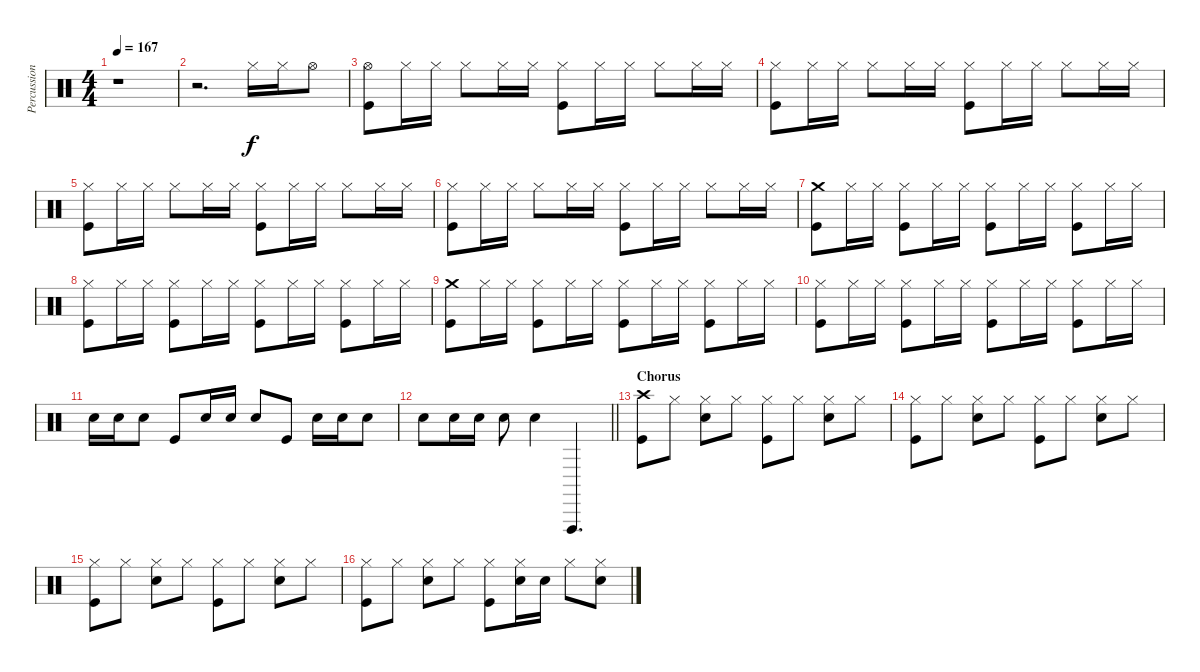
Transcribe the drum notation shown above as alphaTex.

\track ("Percussion" "Percussion") {instrument percussion}
\staff {score}
\articulation defaults
\ts (4 4)
\tempo 167
\clef neutral
\ks c
r.1{dy f} |
r.2{d} "Hi-Hat (closed)".16 "Hi-Hat (closed)".16 "Hi-Hat (open)".8 |
("Hi-Hat (open)" "Kick (hit)").8 "Hi-Hat (closed)".16 "Hi-Hat (closed)".16 "Hi-Hat (closed)".8 "Hi-Hat (closed)".16 "Hi-Hat (closed)".16 ("Hi-Hat (closed)" "Kick (hit)").8 "Hi-Hat (closed)".16 "Hi-Hat (closed)".16 "Hi-Hat (closed)".8 "Hi-Hat (closed)".16 "Hi-Hat (closed)".16 |
("Hi-Hat (closed)" "Kick (hit)").8 "Hi-Hat (closed)".16 "Hi-Hat (closed)".16 "Hi-Hat (closed)".8 "Hi-Hat (closed)".16 "Hi-Hat (closed)".16 ("Hi-Hat (closed)" "Kick (hit)").8 "Hi-Hat (closed)".16 "Hi-Hat (closed)".16 "Hi-Hat (closed)".8 "Hi-Hat (closed)".16 "Hi-Hat (closed)".16 |
("Hi-Hat (closed)" "Kick (hit)").8 "Hi-Hat (closed)".16 "Hi-Hat (closed)".16 "Hi-Hat (closed)".8 "Hi-Hat (closed)".16 "Hi-Hat (closed)".16 ("Hi-Hat (closed)" "Kick (hit)").8 "Hi-Hat (closed)".16 "Hi-Hat (closed)".16 "Hi-Hat (closed)".8 "Hi-Hat (closed)".16 "Hi-Hat (closed)".16 |
("Hi-Hat (closed)" "Kick (hit)").8 "Hi-Hat (closed)".16 "Hi-Hat (closed)".16 "Hi-Hat (closed)".8 "Hi-Hat (closed)".16 "Hi-Hat (closed)".16 ("Hi-Hat (closed)" "Kick (hit)").8 "Hi-Hat (closed)".16 "Hi-Hat (closed)".16 "Hi-Hat (closed)".8 "Hi-Hat (closed)".16 "Hi-Hat (closed)".16 |
("Crash medium (hit)" "Kick (hit)").8 "Hi-Hat (closed)".16 "Hi-Hat (closed)".16 ("Hi-Hat (closed)" "Kick (hit)").8 "Hi-Hat (closed)".16 "Hi-Hat (closed)".16 ("Hi-Hat (closed)" "Kick (hit)").8 "Hi-Hat (closed)".16 "Hi-Hat (closed)".16 ("Hi-Hat (closed)" "Kick (hit)").8 "Hi-Hat (closed)".16 "Hi-Hat (closed)".16 |
("Hi-Hat (closed)" "Kick (hit)").8 "Hi-Hat (closed)".16 "Hi-Hat (closed)".16 ("Hi-Hat (closed)" "Kick (hit)").8 "Hi-Hat (closed)".16 "Hi-Hat (closed)".16 ("Hi-Hat (closed)" "Kick (hit)").8 "Hi-Hat (closed)".16 "Hi-Hat (closed)".16 ("Hi-Hat (closed)" "Kick (hit)").8 "Hi-Hat (closed)".16 "Hi-Hat (closed)".16 |
("Crash medium (hit)" "Kick (hit)").8 "Hi-Hat (closed)".16 "Hi-Hat (closed)".16 ("Hi-Hat (closed)" "Kick (hit)").8 "Hi-Hat (closed)".16 "Hi-Hat (closed)".16 ("Hi-Hat (closed)" "Kick (hit)").8 "Hi-Hat (closed)".16 "Hi-Hat (closed)".16 ("Hi-Hat (closed)" "Kick (hit)").8 "Hi-Hat (closed)".16 "Hi-Hat (closed)".16 |
("Hi-Hat (closed)" "Kick (hit)").8 "Hi-Hat (closed)".16 "Hi-Hat (closed)".16 ("Hi-Hat (closed)" "Kick (hit)").8 "Hi-Hat (closed)".16 "Hi-Hat (closed)".16 ("Hi-Hat (closed)" "Kick (hit)").8 "Hi-Hat (closed)".16 "Hi-Hat (closed)".16 ("Hi-Hat (closed)" "Kick (hit)").8 "Hi-Hat (closed)".16 "Hi-Hat (closed)".16 |
"Electric Snare (hit)".16 "Electric Snare (hit)".16 "Electric Snare (hit)".8 "Kick (hit)".8 "Electric Snare (hit)".16 "Electric Snare (hit)".16 "Electric Snare (hit)".8 "Kick (hit)".8 "Electric Snare (hit)".16 "Electric Snare (hit)".16 "Electric Snare (hit)".8 |
\barLineRight lightlight "Electric Snare (hit)".8 "Electric Snare (hit)".16 "Electric Snare (hit)".16 "Electric Snare (hit)".8 "Electric Snare (hit)".4 "Vibraslap (hit)".4{d}
|
\section ("" "Chorus")
("Crash high (hit)" "Kick (hit)").8 "Hi-Hat (closed)".8 ("Hi-Hat (closed)" "Electric Snare (hit)").8 "Hi-Hat (closed)".8 ("Hi-Hat (closed)" "Kick (hit)").8 "Hi-Hat (closed)".8 ("Hi-Hat (closed)" "Electric Snare (hit)").8 "Hi-Hat (closed)".8 |
("Hi-Hat (closed)" "Kick (hit)").8 "Hi-Hat (closed)".8 ("Hi-Hat (closed)" "Electric Snare (hit)").8 "Hi-Hat (closed)".8 ("Hi-Hat (closed)" "Kick (hit)").8 "Hi-Hat (closed)".8 ("Hi-Hat (closed)" "Electric Snare (hit)").8 "Hi-Hat (closed)".8 |
("Hi-Hat (closed)" "Kick (hit)").8 "Hi-Hat (closed)".8 ("Hi-Hat (closed)" "Electric Snare (hit)").8 "Hi-Hat (closed)".8 ("Hi-Hat (closed)" "Kick (hit)").8 "Hi-Hat (closed)".8 ("Hi-Hat (closed)" "Electric Snare (hit)").8 "Hi-Hat (closed)".8 |
("Hi-Hat (closed)" "Kick (hit)").8 "Hi-Hat (closed)".8 ("Hi-Hat (closed)" "Electric Snare (hit)").8 "Hi-Hat (closed)".8 ("Hi-Hat (closed)" "Kick (hit)").8 ("Hi-Hat (closed)" "Electric Snare (hit)").16 "Electric Snare (hit)".16 "Hi-Hat (closed)".8 ("Hi-Hat (closed)" "Electric Snare (hit)").8
